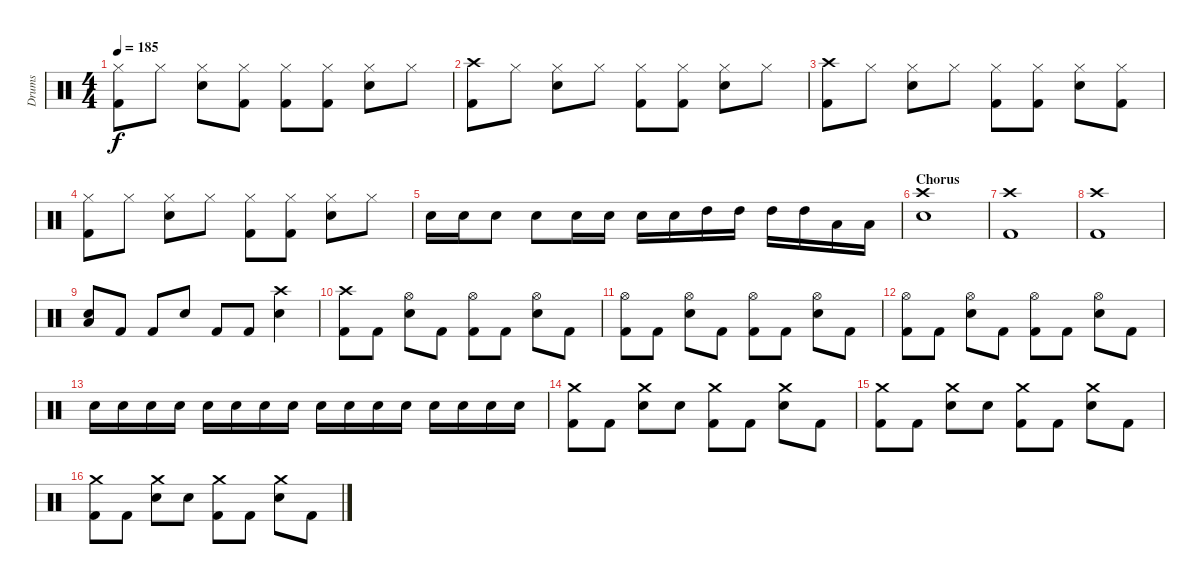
\track ("Drums" "Drums") {instrument percussion}
\staff {score}
\articulation defaults
\ts (4 4)
\tempo 185
\clef neutral
\ks c
("Hi-Hat (closed)" "Kick (hit) 2").8{dy f} "Hi-Hat (closed)".8 ("Hi-Hat (closed)" "Electric Snare (hit)").8 ("Hi-Hat (closed)" "Kick (hit) 2").8 ("Hi-Hat (closed)" "Kick (hit) 2").8 ("Hi-Hat (closed)" "Kick (hit) 2").8 ("Hi-Hat (closed)" "Electric Snare (hit)").8 "Hi-Hat (closed)".8 |
("Crash high (hit)" "Kick (hit) 2").8 "Hi-Hat (closed)".8 ("Hi-Hat (closed)" "Electric Snare (hit)").8 "Hi-Hat (closed)".8 ("Hi-Hat (closed)" "Kick (hit) 2").8 ("Hi-Hat (closed)" "Kick (hit) 2").8 ("Hi-Hat (closed)" "Electric Snare (hit)").8 "Hi-Hat (closed)".8 |
("Crash high (hit)" "Kick (hit) 2").8 "Hi-Hat (closed)".8 ("Hi-Hat (closed)" "Electric Snare (hit)").8 "Hi-Hat (closed)".8 ("Hi-Hat (closed)" "Kick (hit) 2").8 ("Hi-Hat (closed)" "Kick (hit) 2").8 ("Hi-Hat (closed)" "Electric Snare (hit)").8 ("Hi-Hat (closed)" "Kick (hit) 2").8 |
("Hi-Hat (closed)" "Kick (hit) 2").8 "Hi-Hat (closed)".8 ("Hi-Hat (closed)" "Electric Snare (hit)").8 "Hi-Hat (closed)".8 ("Hi-Hat (closed)" "Kick (hit) 2").8 ("Hi-Hat (closed)" "Kick (hit) 2").8 ("Hi-Hat (closed)" "Electric Snare (hit)").8 "Hi-Hat (closed)".8 |
"Electric Snare (hit)".16 "Electric Snare (hit)".16 "Electric Snare (hit)".8 "Electric Snare (hit)".8 "Electric Snare (hit)".16 "Electric Snare (hit)".16 "Electric Snare (hit)".16 "Electric Snare (hit)".16 "High Tom (hit)".16 "High Tom (hit)".16 "High Tom (hit)".16 "High Tom (hit)".16 "Low Tom (hit)".16 "Low Tom (hit)".16 |
\section ("" "Chorus")
("Crash high (hit)" "Electric Snare (hit)").1 |
("Crash high (hit)" "Kick (hit) 2").1 |
("Crash high (hit)" "Kick (hit) 2").1 |
("Electric Snare (hit)" "Low Floor Tom (hit)").8 "Kick (hit) 2".8 "Kick (hit) 2".8 "Electric Snare (hit)".8 "Kick (hit) 2".8 "Kick (hit) 2".8 ("Crash high (hit)" "Electric Snare (hit)").4 |
("Crash high (hit)" "Kick (hit) 2").8 "Kick (hit) 2".8 ("Hi-Hat (open)" "Electric Snare (hit)").8 "Kick (hit) 2".8 ("Hi-Hat (open)" "Kick (hit) 2").8 "Kick (hit) 2".8 ("Hi-Hat (open)" "Electric Snare (hit)").8 "Kick (hit) 2".8 |
("Hi-Hat (open)" "Kick (hit) 2").8 "Kick (hit) 2".8 ("Hi-Hat (open)" "Electric Snare (hit)").8 "Kick (hit) 2".8 ("Hi-Hat (open)" "Kick (hit) 2").8 "Kick (hit) 2".8 ("Hi-Hat (open)" "Electric Snare (hit)").8 "Kick (hit) 2".8 |
("Hi-Hat (open)" "Kick (hit) 2").8 "Kick (hit) 2".8 ("Hi-Hat (open)" "Electric Snare (hit)").8 "Kick (hit) 2".8 ("Hi-Hat (open)" "Kick (hit) 2").8 "Kick (hit) 2".8 ("Hi-Hat (open)" "Electric Snare (hit)").8 "Kick (hit) 2".8 |
"Electric Snare (hit)".16 "Electric Snare (hit)".16 "Electric Snare (hit)".16 "Electric Snare (hit)".16 "Electric Snare (hit)".16 "Electric Snare (hit)".16 "Electric Snare (hit)".16 "Electric Snare (hit)".16 "Electric Snare (hit)".16 "Electric Snare (hit)".16 "Electric Snare (hit)".16 "Electric Snare (hit)".16 "Electric Snare (hit)".16 "Electric Snare (hit)".16 "Electric Snare (hit)".16 "Electric Snare (hit)".16 |
("Crash medium (hit)" "Kick (hit) 2").8 "Kick (hit) 2".8 ("Crash medium (hit)" "Electric Snare (hit)").8 "Electric Snare (hit)".8 ("Crash medium (hit)" "Kick (hit) 2").8 "Kick (hit) 2".8 ("Crash medium (hit)" "Electric Snare (hit)").8 "Kick (hit) 2".8 |
("Crash medium (hit)" "Kick (hit) 2").8 "Kick (hit) 2".8 ("Crash medium (hit)" "Electric Snare (hit)").8 "Electric Snare (hit)".8 ("Crash medium (hit)" "Kick (hit) 2").8 "Kick (hit) 2".8 ("Crash medium (hit)" "Electric Snare (hit)").8 "Kick (hit) 2".8 |
("Crash medium (hit)" "Kick (hit) 2").8 "Kick (hit) 2".8 ("Crash medium (hit)" "Electric Snare (hit)").8 "Electric Snare (hit)".8 ("Crash medium (hit)" "Kick (hit) 2").8 "Kick (hit) 2".8 ("Crash medium (hit)" "Electric Snare (hit)").8 "Kick (hit) 2".8
